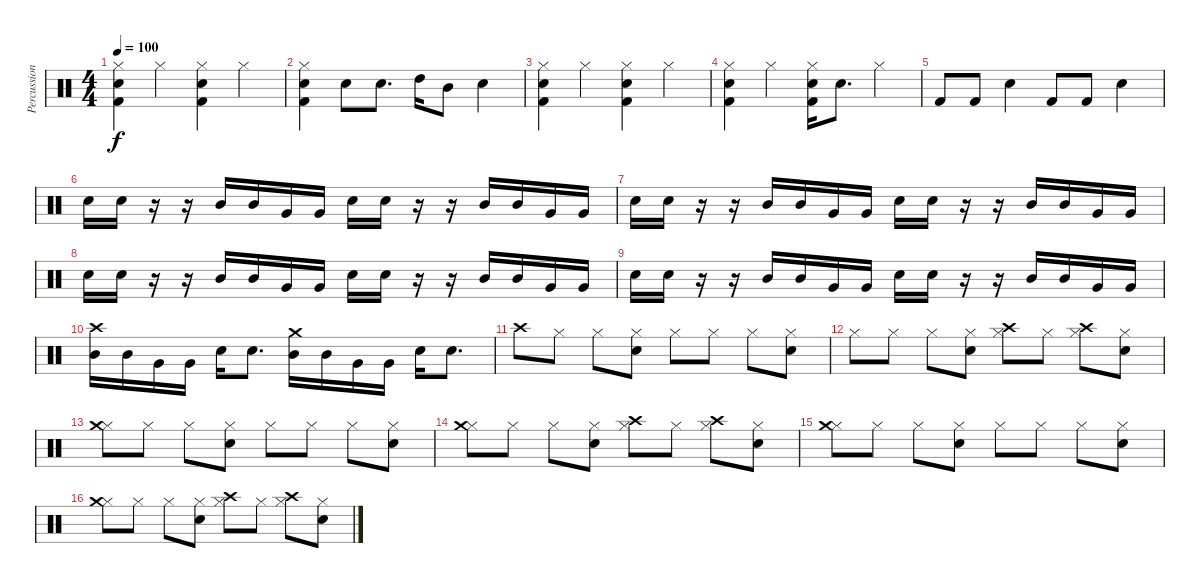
\track ("Percussion" "Percussion") {instrument percussion}
\staff {score}
\articulation defaults
\ts (4 4)
\tempo 100
\clef neutral
\ks c
("Hi-Hat (closed)" "Snare (hit) 2" "Kick (hit) 2").4{dy f} "Hi-Hat (closed)".4 ("Hi-Hat (closed)" "Snare (hit) 2" "Kick (hit) 2").4 "Hi-Hat (closed)".4 |
("Hi-Hat (closed)" "Snare (hit) 2" "Kick (hit) 2").4 "Snare (hit) 2".8 "Snare (hit) 2".8{d} "High Tom (hit)".16 "Mid Tom (hit)".8 "Snare (hit) 2".4 |
("Hi-Hat (closed)" "Snare (hit) 2" "Kick (hit) 2").4 "Hi-Hat (closed)".4 ("Hi-Hat (closed)" "Snare (hit) 2" "Kick (hit) 2").4 "Hi-Hat (closed)".4 |
("Hi-Hat (closed)" "Snare (hit) 2" "Kick (hit) 2").4 "Hi-Hat (closed)".4 ("Hi-Hat (closed)" "Snare (hit) 2" "Kick (hit) 2").16 "Snare (hit) 2".8{d} "Hi-Hat (closed)".4 |
"Kick (hit) 2".8 "Kick (hit) 2".8 "Snare (hit) 2".4 "Kick (hit) 2".8 "Kick (hit) 2".8 "Snare (hit) 2".4 |
"Snare (hit) 2".16 "Snare (hit) 2".16 r.16 r.16 "Mid Tom (hit)".16 "Mid Tom (hit)".16 "Very Low Tom (hit)".16 "Very Low Tom (hit)".16 "Snare (hit) 2".16 "Snare (hit) 2".16 r.16 r.16 "Mid Tom (hit)".16 "Mid Tom (hit)".16 "Very Low Tom (hit)".16 "Very Low Tom (hit)".16 |
"Snare (hit) 2".16 "Snare (hit) 2".16 r.16 r.16 "Mid Tom (hit)".16 "Mid Tom (hit)".16 "Very Low Tom (hit)".16 "Very Low Tom (hit)".16 "Snare (hit) 2".16 "Snare (hit) 2".16 r.16 r.16 "Mid Tom (hit)".16 "Mid Tom (hit)".16 "Very Low Tom (hit)".16 "Very Low Tom (hit)".16 |
"Snare (hit) 2".16 "Snare (hit) 2".16 r.16 r.16 "Mid Tom (hit)".16 "Mid Tom (hit)".16 "Very Low Tom (hit)".16 "Very Low Tom (hit)".16 "Snare (hit) 2".16 "Snare (hit) 2".16 r.16 r.16 "Mid Tom (hit)".16 "Mid Tom (hit)".16 "Very Low Tom (hit)".16 "Very Low Tom (hit)".16 |
"Snare (hit) 2".16 "Snare (hit) 2".16 r.16 r.16 "Mid Tom (hit)".16 "Mid Tom (hit)".16 "Very Low Tom (hit)".16 "Very Low Tom (hit)".16 "Snare (hit) 2".16 "Snare (hit) 2".16 r.16 r.16 "Mid Tom (hit)".16 "Mid Tom (hit)".16 "Very Low Tom (hit)".16 "Very Low Tom (hit)".16 |
("Mid Tom (hit)" "Crash high (hit)").16 "Mid Tom (hit)".16 "Very Low Tom (hit)".16 "Very Low Tom (hit)".16 "Snare (hit) 2".16 "Snare (hit) 2".8{d} ("Mid Tom (hit)" "Crash medium (hit)").16 "Mid Tom (hit)".16 "Very Low Tom (hit)".16 "Very Low Tom (hit)".16 "Snare (hit) 2".16 "Snare (hit) 2".8{d} |
"Crash high (hit)".8 "Hi-Hat (closed)".8 "Hi-Hat (closed)".8 ("Hi-Hat (closed)" "Snare (hit) 2").8 "Hi-Hat (closed)".8 "Hi-Hat (closed)".8 "Hi-Hat (closed)".8 ("Hi-Hat (closed)" "Snare (hit) 2").8 |
"Hi-Hat (closed)".8 "Hi-Hat (closed)".8 "Hi-Hat (closed)".8 ("Hi-Hat (closed)" "Snare (hit) 2").8 ("Hi-Hat (closed)" "Crash high (hit)").8 "Hi-Hat (closed)".8 ("Hi-Hat (closed)" "Crash high (hit)").8 ("Hi-Hat (closed)" "Snare (hit) 2").8 |
("Hi-Hat (closed)" "Crash medium (hit)").8 "Hi-Hat (closed)".8 "Hi-Hat (closed)".8 ("Hi-Hat (closed)" "Snare (hit) 2").8 "Hi-Hat (closed)".8 "Hi-Hat (closed)".8 "Hi-Hat (closed)".8 ("Hi-Hat (closed)" "Snare (hit) 2").8 |
("Hi-Hat (closed)" "Crash medium (hit)").8 "Hi-Hat (closed)".8 "Hi-Hat (closed)".8 ("Hi-Hat (closed)" "Snare (hit) 2").8 ("Hi-Hat (closed)" "Crash high (hit)").8 "Hi-Hat (closed)".8 ("Hi-Hat (closed)" "Crash high (hit)").8 ("Hi-Hat (closed)" "Snare (hit) 2").8 |
("Hi-Hat (closed)" "Crash medium (hit)").8 "Hi-Hat (closed)".8 "Hi-Hat (closed)".8 ("Hi-Hat (closed)" "Snare (hit) 2").8 "Hi-Hat (closed)".8 "Hi-Hat (closed)".8 "Hi-Hat (closed)".8 ("Hi-Hat (closed)" "Snare (hit) 2").8 |
("Hi-Hat (closed)" "Crash medium (hit)").8 "Hi-Hat (closed)".8 "Hi-Hat (closed)".8 ("Hi-Hat (closed)" "Snare (hit) 2").8 ("Hi-Hat (closed)" "Crash high (hit)").8 "Hi-Hat (closed)".8 ("Hi-Hat (closed)" "Crash high (hit)").8 ("Hi-Hat (closed)" "Snare (hit) 2").8
